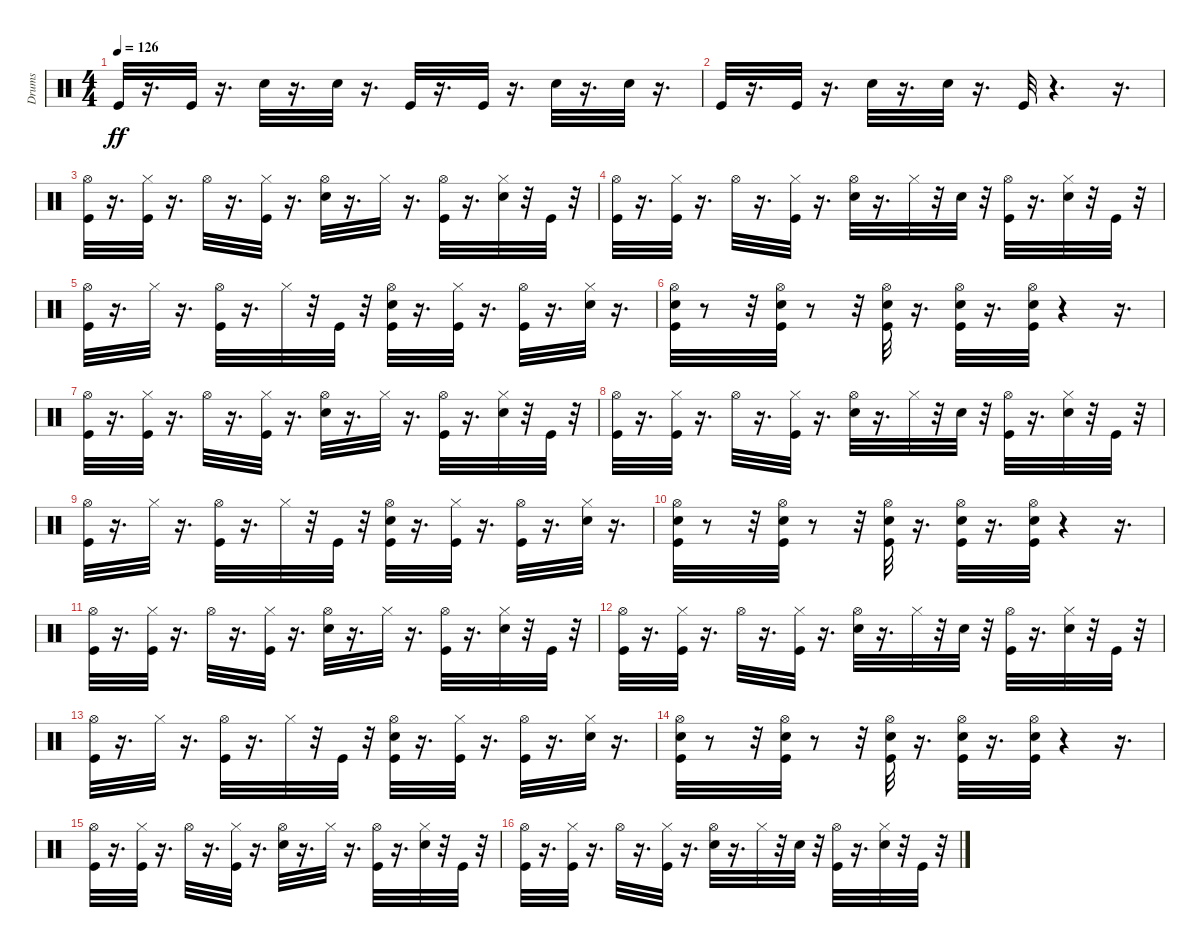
\track ("Drums" "Drums") {instrument percussion}
\staff {score}
\articulation defaults
\ts (4 4)
\tempo 126
\clef neutral
\ks c "Kick (hit)".32{dy ff}
r.16{d} "Kick (hit)".32 r.16{d} "Snare (hit) 2".32 r.16{d} "Snare (hit) 2".32 r.16{d} "Kick (hit)".32 r.16{d} "Kick (hit)".32 r.16{d} "Snare (hit) 2".32 r.16{d} "Snare (hit) 2".32 r.16{d} |
"Kick (hit)".32 r.16{d} "Kick (hit)".32 r.16{d} "Snare (hit) 2".32 r.16{d} "Snare (hit) 2".32 r.16{d} "Kick (hit)".32 r.4{d} r.16{d} |
("Kick (hit)" "Hi-Hat (open)").32 r.16{d} ("Kick (hit)" "Hi-Hat (closed)").32 r.16{d} "Hi-Hat (open)".32 r.16{d} ("Kick (hit)" "Hi-Hat (closed)").32 r.16{d} ("Snare (hit) 2" "Hi-Hat (open)").32 r.16{d} "Hi-Hat (closed)".32 r.16{d} ("Kick (hit)" "Hi-Hat (open)").32 r.16{d} ("Snare (hit) 2" "Hi-Hat (closed)").32 r.32 "Kick (hit)".32 r.32 |
("Kick (hit)" "Hi-Hat (open)").32 r.16{d} ("Kick (hit)" "Hi-Hat (closed)").32 r.16{d} "Hi-Hat (open)".32 r.16{d} ("Kick (hit)" "Hi-Hat (closed)").32 r.16{d} ("Snare (hit) 2" "Hi-Hat (open)").32 r.16{d} "Hi-Hat (closed)".32 r.32 "Snare (hit) 2".32 r.32 ("Kick (hit)" "Hi-Hat (open)").32 r.16{d} ("Snare (hit) 2" "Hi-Hat (closed)").32 r.32 "Kick (hit)".32 r.32 |
("Kick (hit)" "Hi-Hat (open)").32 r.16{d} "Hi-Hat (closed)".32 r.16{d} ("Kick (hit)" "Hi-Hat (open)").32 r.16{d} "Hi-Hat (closed)".32 r.32 "Kick (hit)".32 r.32 ("Kick (hit)" "Snare (hit) 2" "Hi-Hat (open)").32 r.16{d} ("Kick (hit)" "Hi-Hat (closed)").32 r.16{d} ("Kick (hit)" "Hi-Hat (open)").32 r.16{d} ("Snare (hit) 2" "Hi-Hat (closed)").32 r.16{d} |
("Kick (hit)" "Snare (hit) 2" "Hi-Hat (open)").32 r.8 r.32 ("Kick (hit)" "Snare (hit) 2" "Hi-Hat (open)").32 r.8 r.32 ("Kick (hit)" "Snare (hit) 2" "Hi-Hat (open)").32 r.16{d} ("Kick (hit)" "Snare (hit) 2" "Hi-Hat (open)").32 r.16{d} ("Kick (hit)" "Snare (hit) 2" "Hi-Hat (open)").32 r.4 r.16{d} |
("Kick (hit)" "Hi-Hat (open)").32 r.16{d} ("Kick (hit)" "Hi-Hat (closed)").32 r.16{d} "Hi-Hat (open)".32 r.16{d} ("Kick (hit)" "Hi-Hat (closed)").32 r.16{d} ("Snare (hit) 2" "Hi-Hat (open)").32 r.16{d} "Hi-Hat (closed)".32 r.16{d} ("Kick (hit)" "Hi-Hat (open)").32 r.16{d} ("Snare (hit) 2" "Hi-Hat (closed)").32 r.32 "Kick (hit)".32 r.32 |
("Kick (hit)" "Hi-Hat (open)").32 r.16{d} ("Kick (hit)" "Hi-Hat (closed)").32 r.16{d} "Hi-Hat (open)".32 r.16{d} ("Kick (hit)" "Hi-Hat (closed)").32 r.16{d} ("Snare (hit) 2" "Hi-Hat (open)").32 r.16{d} "Hi-Hat (closed)".32 r.32 "Snare (hit) 2".32 r.32 ("Kick (hit)" "Hi-Hat (open)").32 r.16{d} ("Snare (hit) 2" "Hi-Hat (closed)").32 r.32 "Kick (hit)".32 r.32 |
("Kick (hit)" "Hi-Hat (open)").32 r.16{d} "Hi-Hat (closed)".32 r.16{d} ("Kick (hit)" "Hi-Hat (open)").32 r.16{d} "Hi-Hat (closed)".32 r.32 "Kick (hit)".32 r.32 ("Kick (hit)" "Snare (hit) 2" "Hi-Hat (open)").32 r.16{d} ("Kick (hit)" "Hi-Hat (closed)").32 r.16{d} ("Kick (hit)" "Hi-Hat (open)").32 r.16{d} ("Snare (hit) 2" "Hi-Hat (closed)").32 r.16{d} |
("Kick (hit)" "Snare (hit) 2" "Hi-Hat (open)").32 r.8 r.32 ("Kick (hit)" "Snare (hit) 2" "Hi-Hat (open)").32 r.8 r.32 ("Kick (hit)" "Snare (hit) 2" "Hi-Hat (open)").32 r.16{d} ("Kick (hit)" "Snare (hit) 2" "Hi-Hat (open)").32 r.16{d} ("Kick (hit)" "Snare (hit) 2" "Hi-Hat (open)").32 r.4 r.16{d} |
("Kick (hit)" "Hi-Hat (open)").32 r.16{d} ("Kick (hit)" "Hi-Hat (closed)").32 r.16{d} "Hi-Hat (open)".32 r.16{d} ("Kick (hit)" "Hi-Hat (closed)").32 r.16{d} ("Snare (hit) 2" "Hi-Hat (open)").32 r.16{d} "Hi-Hat (closed)".32 r.16{d} ("Kick (hit)" "Hi-Hat (open)").32 r.16{d} ("Snare (hit) 2" "Hi-Hat (closed)").32 r.32 "Kick (hit)".32 r.32 |
("Kick (hit)" "Hi-Hat (open)").32 r.16{d} ("Kick (hit)" "Hi-Hat (closed)").32 r.16{d} "Hi-Hat (open)".32 r.16{d} ("Kick (hit)" "Hi-Hat (closed)").32 r.16{d} ("Snare (hit) 2" "Hi-Hat (open)").32 r.16{d} "Hi-Hat (closed)".32 r.32 "Snare (hit) 2".32 r.32 ("Kick (hit)" "Hi-Hat (open)").32 r.16{d} ("Snare (hit) 2" "Hi-Hat (closed)").32 r.32 "Kick (hit)".32 r.32 |
("Kick (hit)" "Hi-Hat (open)").32 r.16{d} "Hi-Hat (closed)".32 r.16{d} ("Kick (hit)" "Hi-Hat (open)").32 r.16{d} "Hi-Hat (closed)".32 r.32 "Kick (hit)".32 r.32 ("Kick (hit)" "Snare (hit) 2" "Hi-Hat (open)").32 r.16{d} ("Kick (hit)" "Hi-Hat (closed)").32 r.16{d} ("Kick (hit)" "Hi-Hat (open)").32 r.16{d} ("Snare (hit) 2" "Hi-Hat (closed)").32 r.16{d} |
("Kick (hit)" "Snare (hit) 2" "Hi-Hat (open)").32 r.8 r.32 ("Kick (hit)" "Snare (hit) 2" "Hi-Hat (open)").32 r.8 r.32 ("Kick (hit)" "Snare (hit) 2" "Hi-Hat (open)").32 r.16{d} ("Kick (hit)" "Snare (hit) 2" "Hi-Hat (open)").32 r.16{d} ("Kick (hit)" "Snare (hit) 2" "Hi-Hat (open)").32 r.4 r.16{d} |
("Kick (hit)" "Hi-Hat (open)").32 r.16{d} ("Kick (hit)" "Hi-Hat (closed)").32 r.16{d} "Hi-Hat (open)".32 r.16{d} ("Kick (hit)" "Hi-Hat (closed)").32 r.16{d} ("Snare (hit) 2" "Hi-Hat (open)").32 r.16{d} "Hi-Hat (closed)".32 r.16{d} ("Kick (hit)" "Hi-Hat (open)").32 r.16{d} ("Snare (hit) 2" "Hi-Hat (closed)").32 r.32 "Kick (hit)".32 r.32 |
("Kick (hit)" "Hi-Hat (open)").32 r.16{d} ("Kick (hit)" "Hi-Hat (closed)").32 r.16{d} "Hi-Hat (open)".32 r.16{d} ("Kick (hit)" "Hi-Hat (closed)").32 r.16{d} ("Snare (hit) 2" "Hi-Hat (open)").32 r.16{d} "Hi-Hat (closed)".32 r.32 "Snare (hit) 2".32 r.32 ("Kick (hit)" "Hi-Hat (open)").32 r.16{d} ("Snare (hit) 2" "Hi-Hat (closed)").32 r.32 "Kick (hit)".32 r.32
